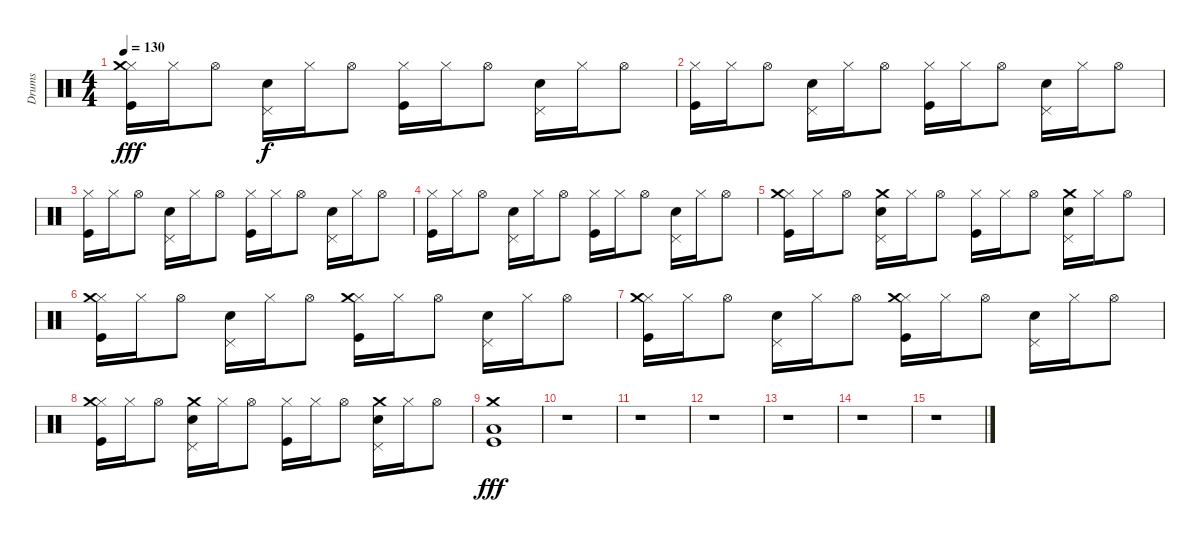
\track ("Drums" "Drums") {instrument percussion}
\staff {score}
\articulation defaults
\ts (4 4)
\tempo 130
\clef neutral
\ks c
("Hi-Hat (closed)" "Crash medium (hit)" "Kick (hit)").16{dy fff} "Hi-Hat (closed)".16 "Hi-Hat (open)".8 ("Pedal Hi-Hat (hit)" "Electric Snare (hit)").16{dy f} "Hi-Hat (closed)".16 "Hi-Hat (open)".8 ("Hi-Hat (closed)" "Kick (hit)").16 "Hi-Hat (closed)".16 "Hi-Hat (open)".8 ("Pedal Hi-Hat (hit)" "Electric Snare (hit)").16 "Hi-Hat (closed)".16 "Hi-Hat (open)".8 |
("Hi-Hat (closed)" "Kick (hit)").16 "Hi-Hat (closed)".16 "Hi-Hat (open)".8 ("Pedal Hi-Hat (hit)" "Electric Snare (hit)").16 "Hi-Hat (closed)".16 "Hi-Hat (open)".8 ("Hi-Hat (closed)" "Kick (hit)").16 "Hi-Hat (closed)".16 "Hi-Hat (open)".8 ("Pedal Hi-Hat (hit)" "Electric Snare (hit)").16 "Hi-Hat (closed)".16 "Hi-Hat (open)".8 |
("Hi-Hat (closed)" "Kick (hit)").16 "Hi-Hat (closed)".16 "Hi-Hat (open)".8 ("Pedal Hi-Hat (hit)" "Electric Snare (hit)").16 "Hi-Hat (closed)".16 "Hi-Hat (open)".8 ("Hi-Hat (closed)" "Kick (hit)").16 "Hi-Hat (closed)".16 "Hi-Hat (open)".8 ("Pedal Hi-Hat (hit)" "Electric Snare (hit)").16 "Hi-Hat (closed)".16 "Hi-Hat (open)".8 |
("Hi-Hat (closed)" "Kick (hit)").16 "Hi-Hat (closed)".16 "Hi-Hat (open)".8 ("Pedal Hi-Hat (hit)" "Electric Snare (hit)").16 "Hi-Hat (closed)".16 "Hi-Hat (open)".8 ("Hi-Hat (closed)" "Kick (hit)").16 "Hi-Hat (closed)".16 "Hi-Hat (open)".8 ("Pedal Hi-Hat (hit)" "Electric Snare (hit)").16 "Hi-Hat (closed)".16 "Hi-Hat (open)".8 |
("Hi-Hat (closed)" "Crash medium (hit)" "Kick (hit)").16 "Hi-Hat (closed)".16 "Hi-Hat (open)".8 ("Pedal Hi-Hat (hit)" "Crash medium (hit)" "Electric Snare (hit)").16 "Hi-Hat (closed)".16 "Hi-Hat (open)".8 ("Hi-Hat (closed)" "Kick (hit)").16 "Hi-Hat (closed)".16 "Hi-Hat (open)".8 ("Pedal Hi-Hat (hit)" "Crash medium (hit)" "Electric Snare (hit)").16 "Hi-Hat (closed)".16 "Hi-Hat (open)".8 |
("Hi-Hat (closed)" "Crash medium (hit)" "Kick (hit)").16 "Hi-Hat (closed)".16 "Hi-Hat (open)".8 ("Pedal Hi-Hat (hit)" "Electric Snare (hit)").16 "Hi-Hat (closed)".16 "Hi-Hat (open)".8 ("Hi-Hat (closed)" "Crash medium (hit)" "Kick (hit)").16 "Hi-Hat (closed)".16 "Hi-Hat (open)".8 ("Pedal Hi-Hat (hit)" "Electric Snare (hit)").16 "Hi-Hat (closed)".16 "Hi-Hat (open)".8 |
("Hi-Hat (closed)" "Crash medium (hit)" "Kick (hit)").16 "Hi-Hat (closed)".16 "Hi-Hat (open)".8 ("Pedal Hi-Hat (hit)" "Electric Snare (hit)").16 "Hi-Hat (closed)".16 "Hi-Hat (open)".8 ("Hi-Hat (closed)" "Crash medium (hit)" "Kick (hit)").16 "Hi-Hat (closed)".16 "Hi-Hat (open)".8 ("Pedal Hi-Hat (hit)" "Electric Snare (hit)").16 "Hi-Hat (closed)".16 "Hi-Hat (open)".8 |
("Hi-Hat (closed)" "Crash medium (hit)" "Kick (hit)").16 "Hi-Hat (closed)".16 "Hi-Hat (open)".8 ("Pedal Hi-Hat (hit)" "Crash medium (hit)" "Electric Snare (hit)").16 "Hi-Hat (closed)".16 "Hi-Hat (open)".8 ("Hi-Hat (closed)" "Kick (hit)").16 "Hi-Hat (closed)".16 "Hi-Hat (open)".8 ("Pedal Hi-Hat (hit)" "Crash medium (hit)" "Electric Snare (hit)").16 "Hi-Hat (closed)".16 "Hi-Hat (open)".8 |
("Crash medium (hit)" "Low Floor Tom (hit)" "Kick (hit)").1{dy fff} |
r.1 |
r.1 |
r.1 |
r.1 |
r.1 |
r.1
